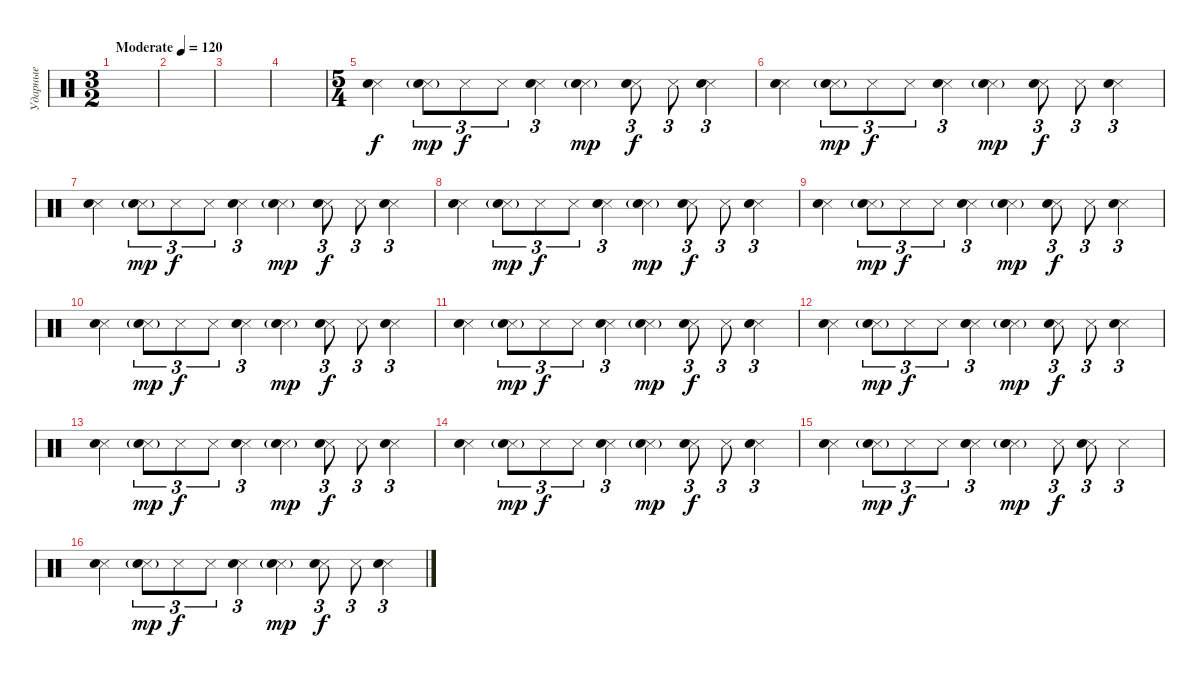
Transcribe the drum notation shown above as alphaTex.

\track ("Ударные" "Ударные") {instrument percussion}
\staff {score}
\articulation defaults
\ts (3 2)
\tempo (120 "Moderate")
\clef neutral
\ks c
|
|
|
|
\ts (5 4)
("Snare (side stick) 3" "Hand Clap (hit)").4 ("Snare (side stick) 3"{g} "Hand Clap (hit)"{g}).8{tu (3 2) dy mp} "Snare (side stick) 3".8{tu (3 2) dy f} "Snare (side stick) 3".8{tu (3 2)} ("Snare (side stick) 3" "Hand Clap (hit)").4{tu (3 2)} ("Snare (side stick) 3"{g} "Hand Clap (hit)"{g}).4{dy mp} ("Snare (side stick) 3" "Hand Clap (hit)").8{tu (3 2) dy f} "Snare (side stick) 3".8{tu (3 2)} ("Snare (side stick) 3" "Hand Clap (hit)").4{tu (3 2)} |
("Snare (side stick) 3" "Hand Clap (hit)").4 ("Snare (side stick) 3"{g} "Hand Clap (hit)"{g}).8{tu (3 2) dy mp} "Snare (side stick) 3".8{tu (3 2) dy f} "Snare (side stick) 3".8{tu (3 2)} ("Snare (side stick) 3" "Hand Clap (hit)").4{tu (3 2)} ("Snare (side stick) 3"{g} "Hand Clap (hit)"{g}).4{dy mp} ("Snare (side stick) 3" "Hand Clap (hit)").8{tu (3 2) dy f} "Snare (side stick) 3".8{tu (3 2)} ("Snare (side stick) 3" "Hand Clap (hit)").4{tu (3 2)} |
("Snare (side stick) 3" "Hand Clap (hit)").4 ("Snare (side stick) 3"{g} "Hand Clap (hit)"{g}).8{tu (3 2) dy mp} "Snare (side stick) 3".8{tu (3 2) dy f} "Snare (side stick) 3".8{tu (3 2)} ("Snare (side stick) 3" "Hand Clap (hit)").4{tu (3 2)} ("Snare (side stick) 3"{g} "Hand Clap (hit)"{g}).4{dy mp} ("Snare (side stick) 3" "Hand Clap (hit)").8{tu (3 2) dy f} "Snare (side stick) 3".8{tu (3 2)} ("Snare (side stick) 3" "Hand Clap (hit)").4{tu (3 2)} |
("Snare (side stick) 3" "Hand Clap (hit)").4 ("Snare (side stick) 3"{g} "Hand Clap (hit)"{g}).8{tu (3 2) dy mp} "Snare (side stick) 3".8{tu (3 2) dy f} "Snare (side stick) 3".8{tu (3 2)} ("Snare (side stick) 3" "Hand Clap (hit)").4{tu (3 2)} ("Snare (side stick) 3"{g} "Hand Clap (hit)"{g}).4{dy mp} ("Snare (side stick) 3" "Hand Clap (hit)").8{tu (3 2) dy f} "Snare (side stick) 3".8{tu (3 2)} ("Snare (side stick) 3" "Hand Clap (hit)").4{tu (3 2)} |
("Snare (side stick) 3" "Hand Clap (hit)").4 ("Snare (side stick) 3"{g} "Hand Clap (hit)"{g}).8{tu (3 2) dy mp} "Snare (side stick) 3".8{tu (3 2) dy f} "Snare (side stick) 3".8{tu (3 2)} ("Snare (side stick) 3" "Hand Clap (hit)").4{tu (3 2)} ("Snare (side stick) 3"{g} "Hand Clap (hit)"{g}).4{dy mp} ("Snare (side stick) 3" "Hand Clap (hit)").8{tu (3 2) dy f} "Snare (side stick) 3".8{tu (3 2)} ("Snare (side stick) 3" "Hand Clap (hit)").4{tu (3 2)} |
("Snare (side stick) 3" "Hand Clap (hit)").4 ("Snare (side stick) 3"{g} "Hand Clap (hit)"{g}).8{tu (3 2) dy mp} "Snare (side stick) 3".8{tu (3 2) dy f} "Snare (side stick) 3".8{tu (3 2)} ("Snare (side stick) 3" "Hand Clap (hit)").4{tu (3 2)} ("Snare (side stick) 3"{g} "Hand Clap (hit)"{g}).4{dy mp} ("Snare (side stick) 3" "Hand Clap (hit)").8{tu (3 2) dy f} "Snare (side stick) 3".8{tu (3 2)} ("Snare (side stick) 3" "Hand Clap (hit)").4{tu (3 2)} |
("Snare (side stick) 3" "Hand Clap (hit)").4 ("Snare (side stick) 3"{g} "Hand Clap (hit)"{g}).8{tu (3 2) dy mp} "Snare (side stick) 3".8{tu (3 2) dy f} "Snare (side stick) 3".8{tu (3 2)} ("Snare (side stick) 3" "Hand Clap (hit)").4{tu (3 2)} ("Snare (side stick) 3"{g} "Hand Clap (hit)"{g}).4{dy mp} ("Snare (side stick) 3" "Hand Clap (hit)").8{tu (3 2) dy f} "Snare (side stick) 3".8{tu (3 2)} ("Snare (side stick) 3" "Hand Clap (hit)").4{tu (3 2)} |
("Snare (side stick) 3" "Hand Clap (hit)").4 ("Snare (side stick) 3"{g} "Hand Clap (hit)"{g}).8{tu (3 2) dy mp} "Snare (side stick) 3".8{tu (3 2) dy f} "Snare (side stick) 3".8{tu (3 2)} ("Snare (side stick) 3" "Hand Clap (hit)").4{tu (3 2)} ("Snare (side stick) 3"{g} "Hand Clap (hit)"{g}).4{dy mp} ("Snare (side stick) 3" "Hand Clap (hit)").8{tu (3 2) dy f} "Snare (side stick) 3".8{tu (3 2)} ("Snare (side stick) 3" "Hand Clap (hit)").4{tu (3 2)} |
("Snare (side stick) 3" "Hand Clap (hit)").4 ("Snare (side stick) 3"{g} "Hand Clap (hit)"{g}).8{tu (3 2) dy mp} "Snare (side stick) 3".8{tu (3 2) dy f} "Snare (side stick) 3".8{tu (3 2)} ("Snare (side stick) 3" "Hand Clap (hit)").4{tu (3 2)} ("Snare (side stick) 3"{g} "Hand Clap (hit)"{g}).4{dy mp} ("Snare (side stick) 3" "Hand Clap (hit)").8{tu (3 2) dy f} "Snare (side stick) 3".8{tu (3 2)} ("Snare (side stick) 3" "Hand Clap (hit)").4{tu (3 2)} |
("Snare (side stick) 3" "Hand Clap (hit)").4 ("Snare (side stick) 3"{g} "Hand Clap (hit)"{g}).8{tu (3 2) dy mp} "Snare (side stick) 3".8{tu (3 2) dy f} "Snare (side stick) 3".8{tu (3 2)} ("Snare (side stick) 3" "Hand Clap (hit)").4{tu (3 2)} ("Snare (side stick) 3"{g} "Hand Clap (hit)"{g}).4{dy mp} ("Snare (side stick) 3" "Hand Clap (hit)").8{tu (3 2) dy f} "Snare (side stick) 3".8{tu (3 2)} ("Snare (side stick) 3" "Hand Clap (hit)").4{tu (3 2)} |
("Snare (side stick) 3" "Hand Clap (hit)").4 ("Snare (side stick) 3"{g} "Hand Clap (hit)"{g}).8{tu (3 2) dy mp} "Snare (side stick) 3".8{tu (3 2) dy f} "Snare (side stick) 3".8{tu (3 2)} ("Snare (side stick) 3" "Hand Clap (hit)").4{tu (3 2)} ("Snare (side stick) 3"{g} "Hand Clap (hit)"{g}).4{dy mp} "Snare (side stick) 3".8{tu (3 2) dy f} ("Snare (side stick) 3" "Hand Clap (hit)").8{tu (3 2)} "Snare (side stick) 3".4{tu (3 2)} |
("Snare (side stick) 3" "Hand Clap (hit)").4 ("Snare (side stick) 3"{g} "Hand Clap (hit)"{g}).8{tu (3 2) dy mp} "Snare (side stick) 3".8{tu (3 2) dy f} "Snare (side stick) 3".8{tu (3 2)} ("Snare (side stick) 3" "Hand Clap (hit)").4{tu (3 2)} ("Snare (side stick) 3"{g} "Hand Clap (hit)"{g}).4{dy mp} ("Snare (side stick) 3" "Hand Clap (hit)").8{tu (3 2) dy f} "Snare (side stick) 3".8{tu (3 2)} ("Snare (side stick) 3" "Hand Clap (hit)").4{tu (3 2)}
